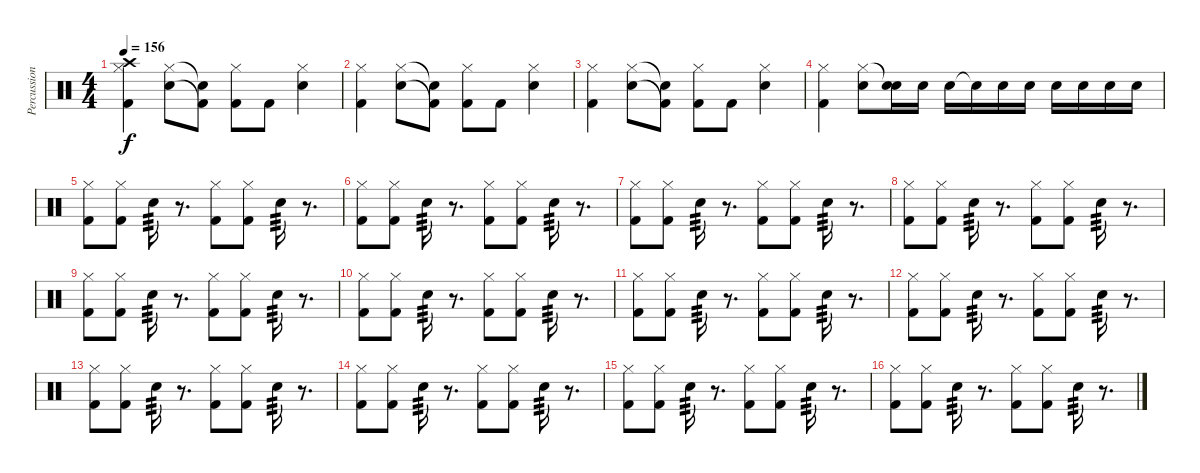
\track ("Percussion" "Percussion") {instrument percussion}
\staff {score}
\articulation defaults
\ts (4 4)
\tempo 156
\clef neutral
\ks c
("Crash high (hit)" "Hi-Hat (closed)" "Kick (hit) 2").4{dy f} ("Hi-Hat (closed)" "Electric Snare (hit)").8 ("Snare (hit)"{t} "Kick (hit) 2"{t}).8 ("Hi-Hat (closed)" "Kick (hit) 2").8 "Kick (hit) 2".8 ("Hi-Hat (closed)" "Electric Snare (hit)").4 |
("Hi-Hat (closed)" "Kick (hit) 2").4 ("Hi-Hat (closed)" "Electric Snare (hit)").8 ("Snare (hit)"{t} "Kick (hit) 2"{t}).8 ("Hi-Hat (closed)" "Kick (hit) 2").8 "Kick (hit) 2".8 ("Hi-Hat (closed)" "Electric Snare (hit)").4 |
("Hi-Hat (closed)" "Kick (hit) 2").4 ("Hi-Hat (closed)" "Electric Snare (hit)").8 ("Snare (hit)"{t} "Kick (hit) 2"{t}).8 ("Hi-Hat (closed)" "Kick (hit) 2").8 "Kick (hit) 2".8 ("Hi-Hat (closed)" "Electric Snare (hit)").4 |
("Hi-Hat (closed)" "Kick (hit) 2").4 ("Hi-Hat (closed)" "Electric Snare (hit)").8 ("Snare (hit)"{t} "Electric Snare (hit)").16 "Electric Snare (hit)".16 "Electric Snare (hit)".16 "Electric Snare (hit)"{t}.16 "Electric Snare (hit)".16 "Electric Snare (hit)".16 "Electric Snare (hit)".16 "Electric Snare (hit)".16 "Electric Snare (hit)".16 "Electric Snare (hit)".16 |
("Hi-Hat (closed)" "Kick (hit) 2").8 ("Hi-Hat (closed)" "Kick (hit) 2").8 "Electric Snare (hit)".16{tp 3} r.8{d} ("Hi-Hat (closed)" "Kick (hit) 2").8 ("Hi-Hat (closed)" "Kick (hit) 2").8 "Electric Snare (hit)".16{tp 3} r.8{d} |
("Hi-Hat (closed)" "Kick (hit) 2").8 ("Hi-Hat (closed)" "Kick (hit) 2").8 "Electric Snare (hit)".16{tp 3} r.8{d} ("Hi-Hat (closed)" "Kick (hit) 2").8 ("Hi-Hat (closed)" "Kick (hit) 2").8 "Electric Snare (hit)".16{tp 3} r.8{d} |
("Hi-Hat (closed)" "Kick (hit) 2").8 ("Hi-Hat (closed)" "Kick (hit) 2").8 "Electric Snare (hit)".16{tp 3} r.8{d} ("Hi-Hat (closed)" "Kick (hit) 2").8 ("Hi-Hat (closed)" "Kick (hit) 2").8 "Electric Snare (hit)".16{tp 3} r.8{d} |
("Hi-Hat (closed)" "Kick (hit) 2").8 ("Hi-Hat (closed)" "Kick (hit) 2").8 "Electric Snare (hit)".16{tp 3} r.8{d} ("Hi-Hat (closed)" "Kick (hit) 2").8 ("Hi-Hat (closed)" "Kick (hit) 2").8 "Electric Snare (hit)".16{tp 3} r.8{d} |
("Hi-Hat (closed)" "Kick (hit) 2").8 ("Hi-Hat (closed)" "Kick (hit) 2").8 "Electric Snare (hit)".16{tp 3} r.8{d} ("Hi-Hat (closed)" "Kick (hit) 2").8 ("Hi-Hat (closed)" "Kick (hit) 2").8 "Electric Snare (hit)".16{tp 3} r.8{d} |
("Hi-Hat (closed)" "Kick (hit) 2").8 ("Hi-Hat (closed)" "Kick (hit) 2").8 "Electric Snare (hit)".16{tp 3} r.8{d} ("Hi-Hat (closed)" "Kick (hit) 2").8 ("Hi-Hat (closed)" "Kick (hit) 2").8 "Electric Snare (hit)".16{tp 3} r.8{d} |
("Hi-Hat (closed)" "Kick (hit) 2").8 ("Hi-Hat (closed)" "Kick (hit) 2").8 "Electric Snare (hit)".16{tp 3} r.8{d} ("Hi-Hat (closed)" "Kick (hit) 2").8 ("Hi-Hat (closed)" "Kick (hit) 2").8 "Electric Snare (hit)".16{tp 3} r.8{d} |
("Hi-Hat (closed)" "Kick (hit) 2").8 ("Hi-Hat (closed)" "Kick (hit) 2").8 "Electric Snare (hit)".16{tp 3} r.8{d} ("Hi-Hat (closed)" "Kick (hit) 2").8 ("Hi-Hat (closed)" "Kick (hit) 2").8 "Electric Snare (hit)".16{tp 3} r.8{d} |
("Hi-Hat (closed)" "Kick (hit) 2").8 ("Hi-Hat (closed)" "Kick (hit) 2").8 "Electric Snare (hit)".16{tp 3} r.8{d} ("Hi-Hat (closed)" "Kick (hit) 2").8 ("Hi-Hat (closed)" "Kick (hit) 2").8 "Electric Snare (hit)".16{tp 3} r.8{d} |
("Hi-Hat (closed)" "Kick (hit) 2").8 ("Hi-Hat (closed)" "Kick (hit) 2").8 "Electric Snare (hit)".16{tp 3} r.8{d} ("Hi-Hat (closed)" "Kick (hit) 2").8 ("Hi-Hat (closed)" "Kick (hit) 2").8 "Electric Snare (hit)".16{tp 3} r.8{d} |
("Hi-Hat (closed)" "Kick (hit) 2").8 ("Hi-Hat (closed)" "Kick (hit) 2").8 "Electric Snare (hit)".16{tp 3} r.8{d} ("Hi-Hat (closed)" "Kick (hit) 2").8 ("Hi-Hat (closed)" "Kick (hit) 2").8 "Electric Snare (hit)".16{tp 3} r.8{d} |
("Hi-Hat (closed)" "Kick (hit) 2").8 ("Hi-Hat (closed)" "Kick (hit) 2").8 "Electric Snare (hit)".16{tp 3} r.8{d} ("Hi-Hat (closed)" "Kick (hit) 2").8 ("Hi-Hat (closed)" "Kick (hit) 2").8 "Electric Snare (hit)".16{tp 3} r.8{d}
